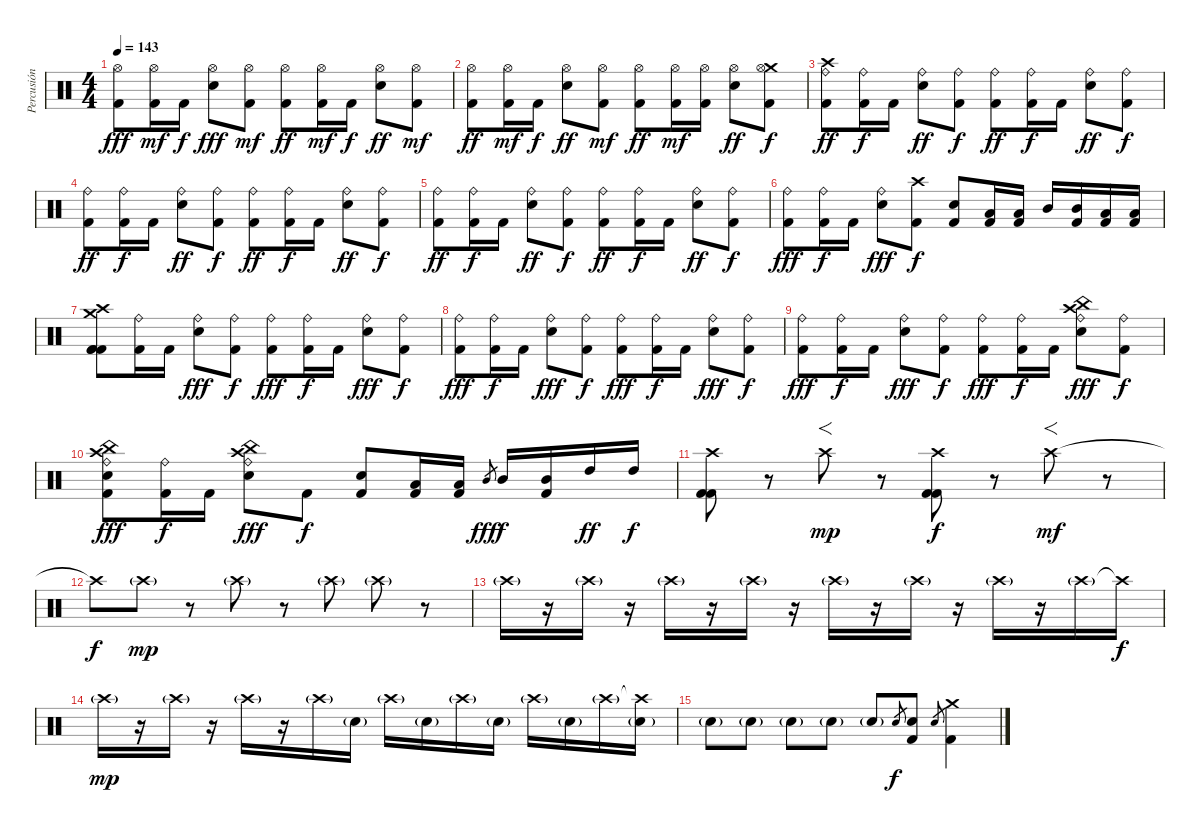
\track ("Percusión" "Percusión") {instrument percussion}
\staff {score}
\articulation defaults
\ts (4 4)
\tempo 143
\clef neutral
\ks c
("Hi-Hat (open)" "Kick (hit) 2").8{dy fff} ("Hi-Hat (open)" "Kick (hit) 2").16{dy mf} "Kick (hit) 2".16{dy f} ("Hi-Hat (open)" "Electric Snare (hit)").8{dy fff} ("Hi-Hat (open)" "Kick (hit) 2").8{dy mf} ("Hi-Hat (open)" "Kick (hit) 2").8{dy ff} ("Hi-Hat (open)" "Kick (hit) 2").16{dy mf} "Kick (hit) 2".16{dy f} ("Hi-Hat (open)" "Electric Snare (hit)").8{dy ff} ("Hi-Hat (open)" "Kick (hit) 2").8{dy mf} |
("Hi-Hat (open)" "Kick (hit) 2").8{dy ff} ("Hi-Hat (open)" "Kick (hit) 2").16{dy mf} "Kick (hit) 2".16{dy f} ("Hi-Hat (open)" "Electric Snare (hit)").8{dy ff} ("Hi-Hat (open)" "Kick (hit) 2").8{dy mf} ("Hi-Hat (open)" "Kick (hit) 2").8{dy ff} ("Hi-Hat (open)" "Kick (hit) 2").16{dy mf} ("Hi-Hat (open)" "Kick (hit) 2").16 ("Hi-Hat (open)" "Electric Snare (hit)").8{dy ff} ("Crash medium (hit)" "Hi-Hat (open)" "Kick (hit) 2").8{dy f} |
("Crash high (hit)" "Ride (bell)" "Kick (hit) 2").8{dy ff} ("Ride (bell)" "Kick (hit) 2").16{dy f} "Kick (hit) 2".16 ("Ride (bell)" "Electric Snare (hit)").8{dy ff} ("Ride (bell)" "Kick (hit) 2").8{dy f} ("Ride (bell)" "Kick (hit) 2").8{dy ff} ("Ride (bell)" "Kick (hit) 2").16{dy f} "Kick (hit) 2".16 ("Ride (bell)" "Electric Snare (hit)").8{dy ff} ("Ride (bell)" "Kick (hit) 2").8{dy f} |
("Ride (bell)" "Kick (hit) 2").8{dy ff} ("Ride (bell)" "Kick (hit) 2").16{dy f} "Kick (hit) 2".16 ("Ride (bell)" "Electric Snare (hit)").8{dy ff} ("Ride (bell)" "Kick (hit) 2").8{dy f} ("Ride (bell)" "Kick (hit) 2").8{dy ff} ("Ride (bell)" "Kick (hit) 2").16{dy f} "Kick (hit) 2".16 ("Ride (bell)" "Electric Snare (hit)").8{dy ff} ("Ride (bell)" "Kick (hit) 2").8{dy f} |
("Ride (bell)" "Kick (hit) 2").8{dy ff} ("Ride (bell)" "Kick (hit) 2").16{dy f} "Kick (hit) 2".16 ("Ride (bell)" "Electric Snare (hit)").8{dy ff} ("Ride (bell)" "Kick (hit) 2").8{dy f} ("Ride (bell)" "Kick (hit) 2").8{dy ff} ("Ride (bell)" "Kick (hit) 2").16{dy f} "Kick (hit) 2".16 ("Ride (bell)" "Electric Snare (hit)").8{dy ff} ("Ride (bell)" "Kick (hit) 2").8{dy f} |
("Ride (bell)" "Kick (hit) 2").8{dy fff} ("Ride (bell)" "Kick (hit) 2").16{dy f} "Kick (hit) 2".16 ("Ride (bell)" "Electric Snare (hit)").8{dy fff} ("Crash high (hit)" "Kick (hit) 2").8{dy f} ("Electric Snare (hit)" "Kick (hit) 2").8 ("Low Tom (hit)" "Kick (hit) 2").16 ("Low Tom (hit)" "Kick (hit) 2").16 "Mid Tom (hit)".16 ("Mid Tom (hit)" "Kick (hit) 2").16 ("Low Tom (hit)" "Kick (hit) 2").16 ("Low Tom (hit)" "Kick (hit) 2").16 |
("Crash high (hit)" "Crash medium (hit)" "Kick (hit) 2" "Kick (hit) 2" "Kick (hit) 2").8 ("Ride (bell)" "Kick (hit) 2").16 "Kick (hit) 2".16 ("Ride (bell)" "Electric Snare (hit)").8{dy fff} ("Ride (bell)" "Kick (hit) 2").8{dy f} ("Ride (bell)" "Kick (hit) 2").8{dy fff} ("Ride (bell)" "Kick (hit) 2").16{dy f} "Kick (hit) 2".16 ("Ride (bell)" "Electric Snare (hit)").8{dy fff} ("Ride (bell)" "Kick (hit) 2").8{dy f} |
("Ride (bell)" "Kick (hit) 2").8{dy fff} ("Ride (bell)" "Kick (hit) 2").16{dy f} "Kick (hit) 2".16 ("Ride (bell)" "Electric Snare (hit)").8{dy fff} ("Ride (bell)" "Kick (hit) 2").8{dy f} ("Ride (bell)" "Kick (hit) 2").8{dy fff} ("Ride (bell)" "Kick (hit) 2").16{dy f} "Kick (hit) 2".16 ("Ride (bell)" "Electric Snare (hit)").8{dy fff} ("Ride (bell)" "Kick (hit) 2").8{dy f} |
("Ride (bell)" "Kick (hit) 2").8{dy fff} ("Ride (bell)" "Kick (hit) 2").16{dy f} "Kick (hit) 2".16 ("Ride (bell)" "Electric Snare (hit)").8{dy fff} ("Ride (bell)" "Kick (hit) 2").8{dy f} ("Ride (bell)" "Kick (hit) 2").8{dy fff} ("Ride (bell)" "Kick (hit) 2").16{dy f} "Kick (hit) 2".16 ("China (hit)" "Crash high (hit)" "Ride (bell)" "Electric Snare (hit)").8{dy fff} ("Ride (bell)" "Kick (hit) 2").8{dy f} |
("China (hit)" "Crash high (hit)" "Ride (bell)" "Electric Snare (hit)" "Kick (hit) 2").8{dy fff} ("Ride (bell)" "Kick (hit) 2").16{dy f} "Kick (hit) 2".16 ("China (hit)" "Crash high (hit)" "Ride (bell)" "Electric Snare (hit)").8{dy fff} "Kick (hit) 2".8{dy f} ("Electric Snare (hit)" "Kick (hit) 2").8 ("Low Tom (hit)" "Kick (hit) 2").16 ("Low Tom (hit)" "Kick (hit) 2").16 "Mid Tom (hit)".8{gr dy fff} "Mid Tom (hit)".16{dy f} ("Mid Tom (hit)" "Kick (hit) 2").16 "High Tom (hit)".16{dy ff} "High Tom (hit)".16{dy f} |
("Crash high (hit)" "Kick (hit) 2" "Kick (hit) 2").8 r.8 "Crash high (hit)".8{f dy mp} r.8 ("Crash high (hit)" "Kick (hit) 2" "Kick (hit) 2").8{dy f} r.8 "Crash high (hit)".8{f dy mf} r.8 |
"Crash high (hit)"{t}.8{dy f} "Crash high (hit)"{g}.8{dy mp} r.8 "Crash high (hit)"{g}.8 r.8 "Crash high (hit)"{g}.8 "Crash high (hit)"{g}.8 r.8 |
"Crash high (hit)"{g}.16 r.16 "Crash high (hit)"{g}.16 r.16 "Crash high (hit)"{g}.16 r.16 "Crash high (hit)"{g}.16 r.16 "Crash high (hit)"{g}.16 r.16 "Crash high (hit)"{g}.16 r.16 "Crash high (hit)"{g}.16 r.16 "Crash high (hit)"{g}.16 "Crash high (hit)"{t}.16{dy f} |
"Crash high (hit)"{g}.16{dy mp} r.16 "Crash high (hit)"{g}.16 r.16 "Crash high (hit)"{g}.16 r.16 "Crash high (hit)"{g}.16 "Electric Snare (hit)"{g}.16 "Crash high (hit)"{g}.16 "Electric Snare (hit)"{g}.16 "Crash high (hit)"{g}.16 "Electric Snare (hit)"{g}.16 "Crash high (hit)"{g}.16 "Electric Snare (hit)"{g}.16 "Crash high (hit)"{g}.16 ("Crash high (hit)"{t} "Electric Snare (hit)"{g}).16 |
"Electric Snare (hit)"{g}.8 "Electric Snare (hit)"{g}.8 "Electric Snare (hit)"{g}.8 "Electric Snare (hit)"{g}.8 "Electric Snare (hit)"{g}.8 "Electric Snare (hit)".8{gr dy f} ("Electric Snare (hit)" "Kick (hit) 2").8 "Electric Snare (hit)".8{gr} ("Crash medium (hit)" "Kick (hit) 2").4
